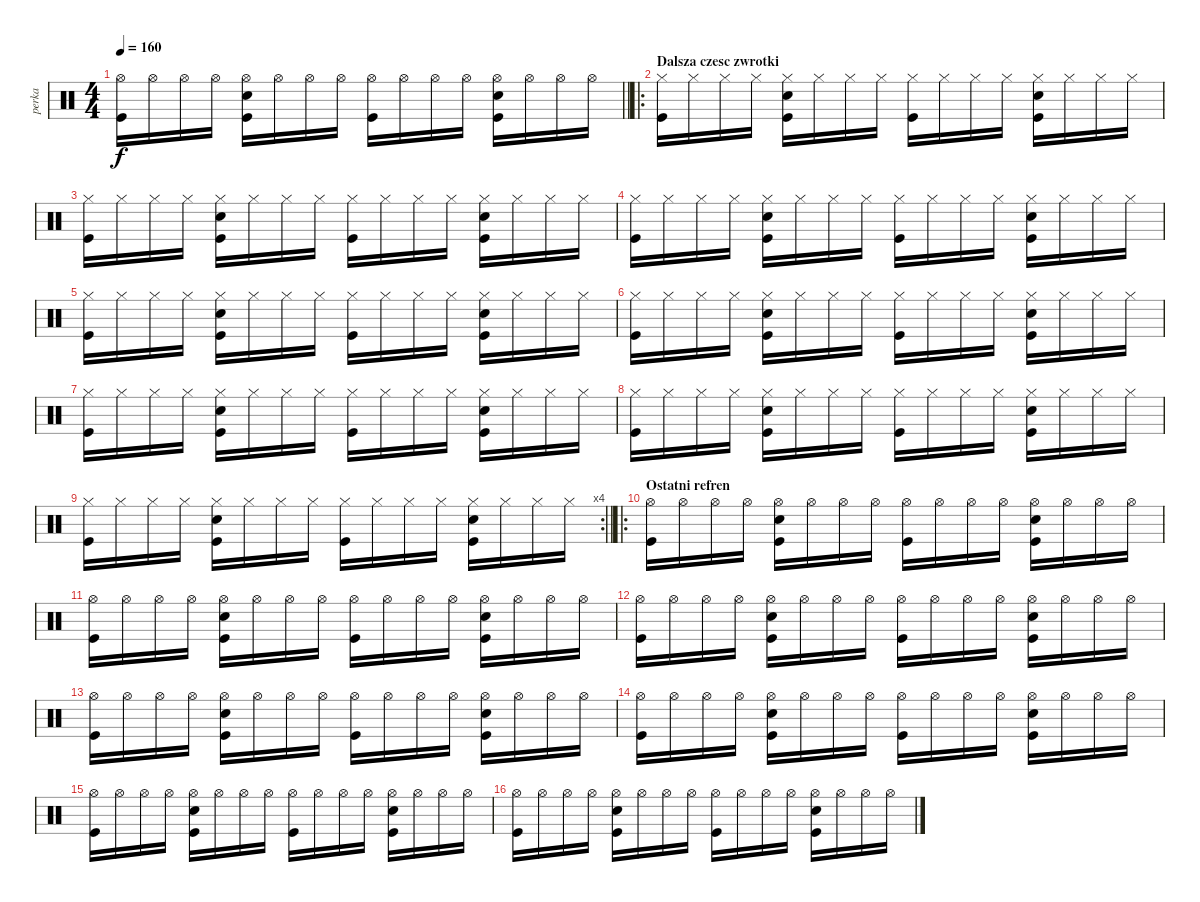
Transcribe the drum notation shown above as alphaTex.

\track ("perka" "perka") {instrument percussion}
\staff {score}
\articulation defaults
\ts (4 4)
\tempo 160
\clef neutral
\barLineRight lightlight
\ks c
("Hi-Hat (open)" "Kick (hit)").16{dy f} "Hi-Hat (open)".16 "Hi-Hat (open)".16 "Hi-Hat (open)".16 ("Hi-Hat (open)" "Snare (hit) 2" "Kick (hit)").16 "Hi-Hat (open)".16 "Hi-Hat (open)".16 "Hi-Hat (open)".16 ("Hi-Hat (open)" "Kick (hit)").16 "Hi-Hat (open)".16 "Hi-Hat (open)".16 "Hi-Hat (open)".16 ("Hi-Hat (open)" "Snare (hit) 2" "Kick (hit)").16 "Hi-Hat (open)".16 "Hi-Hat (open)".16 "Hi-Hat (open)".16 |
\ro
\section ("" "Dalsza czesc zwrotki")
("Hi-Hat (closed)" "Kick (hit)").16 "Hi-Hat (closed)".16 "Hi-Hat (closed)".16 "Hi-Hat (closed)".16 ("Hi-Hat (closed)" "Snare (hit) 2" "Kick (hit)").16 "Hi-Hat (closed)".16 "Hi-Hat (closed)".16 "Hi-Hat (closed)".16 ("Hi-Hat (closed)" "Kick (hit)").16 "Hi-Hat (closed)".16 "Hi-Hat (closed)".16 "Hi-Hat (closed)".16 ("Hi-Hat (closed)" "Snare (hit) 2" "Kick (hit)").16 "Hi-Hat (closed)".16 "Hi-Hat (closed)".16 "Hi-Hat (closed)".16 |
("Hi-Hat (closed)" "Kick (hit)").16 "Hi-Hat (closed)".16 "Hi-Hat (closed)".16 "Hi-Hat (closed)".16 ("Hi-Hat (closed)" "Snare (hit) 2" "Kick (hit)").16 "Hi-Hat (closed)".16 "Hi-Hat (closed)".16 "Hi-Hat (closed)".16 ("Hi-Hat (closed)" "Kick (hit)").16 "Hi-Hat (closed)".16 "Hi-Hat (closed)".16 "Hi-Hat (closed)".16 ("Hi-Hat (closed)" "Snare (hit) 2" "Kick (hit)").16 "Hi-Hat (closed)".16 "Hi-Hat (closed)".16 "Hi-Hat (closed)".16 |
("Hi-Hat (closed)" "Kick (hit)").16 "Hi-Hat (closed)".16 "Hi-Hat (closed)".16 "Hi-Hat (closed)".16 ("Hi-Hat (closed)" "Snare (hit) 2" "Kick (hit)").16 "Hi-Hat (closed)".16 "Hi-Hat (closed)".16 "Hi-Hat (closed)".16 ("Hi-Hat (closed)" "Kick (hit)").16 "Hi-Hat (closed)".16 "Hi-Hat (closed)".16 "Hi-Hat (closed)".16 ("Hi-Hat (closed)" "Snare (hit) 2" "Kick (hit)").16 "Hi-Hat (closed)".16 "Hi-Hat (closed)".16 "Hi-Hat (closed)".16 |
("Hi-Hat (closed)" "Kick (hit)").16 "Hi-Hat (closed)".16 "Hi-Hat (closed)".16 "Hi-Hat (closed)".16 ("Hi-Hat (closed)" "Snare (hit) 2" "Kick (hit)").16 "Hi-Hat (closed)".16 "Hi-Hat (closed)".16 "Hi-Hat (closed)".16 ("Hi-Hat (closed)" "Kick (hit)").16 "Hi-Hat (closed)".16 "Hi-Hat (closed)".16 "Hi-Hat (closed)".16 ("Hi-Hat (closed)" "Snare (hit) 2" "Kick (hit)").16 "Hi-Hat (closed)".16 "Hi-Hat (closed)".16 "Hi-Hat (closed)".16 |
("Hi-Hat (closed)" "Kick (hit)").16 "Hi-Hat (closed)".16 "Hi-Hat (closed)".16 "Hi-Hat (closed)".16 ("Hi-Hat (closed)" "Snare (hit) 2" "Kick (hit)").16 "Hi-Hat (closed)".16 "Hi-Hat (closed)".16 "Hi-Hat (closed)".16 ("Hi-Hat (closed)" "Kick (hit)").16 "Hi-Hat (closed)".16 "Hi-Hat (closed)".16 "Hi-Hat (closed)".16 ("Hi-Hat (closed)" "Snare (hit) 2" "Kick (hit)").16 "Hi-Hat (closed)".16 "Hi-Hat (closed)".16 "Hi-Hat (closed)".16 |
("Hi-Hat (closed)" "Kick (hit)").16 "Hi-Hat (closed)".16 "Hi-Hat (closed)".16 "Hi-Hat (closed)".16 ("Hi-Hat (closed)" "Snare (hit) 2" "Kick (hit)").16 "Hi-Hat (closed)".16 "Hi-Hat (closed)".16 "Hi-Hat (closed)".16 ("Hi-Hat (closed)" "Kick (hit)").16 "Hi-Hat (closed)".16 "Hi-Hat (closed)".16 "Hi-Hat (closed)".16 ("Hi-Hat (closed)" "Snare (hit) 2" "Kick (hit)").16 "Hi-Hat (closed)".16 "Hi-Hat (closed)".16 "Hi-Hat (closed)".16 |
("Hi-Hat (closed)" "Kick (hit)").16 "Hi-Hat (closed)".16 "Hi-Hat (closed)".16 "Hi-Hat (closed)".16 ("Hi-Hat (closed)" "Snare (hit) 2" "Kick (hit)").16 "Hi-Hat (closed)".16 "Hi-Hat (closed)".16 "Hi-Hat (closed)".16 ("Hi-Hat (closed)" "Kick (hit)").16 "Hi-Hat (closed)".16 "Hi-Hat (closed)".16 "Hi-Hat (closed)".16 ("Hi-Hat (closed)" "Snare (hit) 2" "Kick (hit)").16 "Hi-Hat (closed)".16 "Hi-Hat (closed)".16 "Hi-Hat (closed)".16 |
\rc 4
\barLineRight lightlight
("Hi-Hat (closed)" "Kick (hit)").16 "Hi-Hat (closed)".16 "Hi-Hat (closed)".16 "Hi-Hat (closed)".16 ("Hi-Hat (closed)" "Snare (hit) 2" "Kick (hit)").16 "Hi-Hat (closed)".16 "Hi-Hat (closed)".16 "Hi-Hat (closed)".16 ("Hi-Hat (closed)" "Kick (hit)").16 "Hi-Hat (closed)".16 "Hi-Hat (closed)".16 "Hi-Hat (closed)".16 ("Hi-Hat (closed)" "Snare (hit) 2" "Kick (hit)").16 "Hi-Hat (closed)".16 "Hi-Hat (closed)".16 "Hi-Hat (closed)".16 |
\ro
\section ("" "Ostatni refren")
("Hi-Hat (open)" "Kick (hit)").16 "Hi-Hat (open)".16 "Hi-Hat (open)".16 "Hi-Hat (open)".16 ("Hi-Hat (open)" "Snare (hit) 2" "Kick (hit)").16 "Hi-Hat (open)".16 "Hi-Hat (open)".16 "Hi-Hat (open)".16 ("Hi-Hat (open)" "Kick (hit)").16 "Hi-Hat (open)".16 "Hi-Hat (open)".16 "Hi-Hat (open)".16 ("Hi-Hat (open)" "Snare (hit) 2" "Kick (hit)").16 "Hi-Hat (open)".16 "Hi-Hat (open)".16 "Hi-Hat (open)".16 |
("Hi-Hat (open)" "Kick (hit)").16 "Hi-Hat (open)".16 "Hi-Hat (open)".16 "Hi-Hat (open)".16 ("Hi-Hat (open)" "Snare (hit) 2" "Kick (hit)").16 "Hi-Hat (open)".16 "Hi-Hat (open)".16 "Hi-Hat (open)".16 ("Hi-Hat (open)" "Kick (hit)").16 "Hi-Hat (open)".16 "Hi-Hat (open)".16 "Hi-Hat (open)".16 ("Hi-Hat (open)" "Snare (hit) 2" "Kick (hit)").16 "Hi-Hat (open)".16 "Hi-Hat (open)".16 "Hi-Hat (open)".16 |
("Hi-Hat (open)" "Kick (hit)").16 "Hi-Hat (open)".16 "Hi-Hat (open)".16 "Hi-Hat (open)".16 ("Hi-Hat (open)" "Snare (hit) 2" "Kick (hit)").16 "Hi-Hat (open)".16 "Hi-Hat (open)".16 "Hi-Hat (open)".16 ("Hi-Hat (open)" "Kick (hit)").16 "Hi-Hat (open)".16 "Hi-Hat (open)".16 "Hi-Hat (open)".16 ("Hi-Hat (open)" "Snare (hit) 2" "Kick (hit)").16 "Hi-Hat (open)".16 "Hi-Hat (open)".16 "Hi-Hat (open)".16 |
("Hi-Hat (open)" "Kick (hit)").16 "Hi-Hat (open)".16 "Hi-Hat (open)".16 "Hi-Hat (open)".16 ("Hi-Hat (open)" "Snare (hit) 2" "Kick (hit)").16 "Hi-Hat (open)".16 "Hi-Hat (open)".16 "Hi-Hat (open)".16 ("Hi-Hat (open)" "Kick (hit)").16 "Hi-Hat (open)".16 "Hi-Hat (open)".16 "Hi-Hat (open)".16 ("Hi-Hat (open)" "Snare (hit) 2" "Kick (hit)").16 "Hi-Hat (open)".16 "Hi-Hat (open)".16 "Hi-Hat (open)".16 |
("Hi-Hat (open)" "Kick (hit)").16 "Hi-Hat (open)".16 "Hi-Hat (open)".16 "Hi-Hat (open)".16 ("Hi-Hat (open)" "Snare (hit) 2" "Kick (hit)").16 "Hi-Hat (open)".16 "Hi-Hat (open)".16 "Hi-Hat (open)".16 ("Hi-Hat (open)" "Kick (hit)").16 "Hi-Hat (open)".16 "Hi-Hat (open)".16 "Hi-Hat (open)".16 ("Hi-Hat (open)" "Snare (hit) 2" "Kick (hit)").16 "Hi-Hat (open)".16 "Hi-Hat (open)".16 "Hi-Hat (open)".16 |
("Hi-Hat (open)" "Kick (hit)").16 "Hi-Hat (open)".16 "Hi-Hat (open)".16 "Hi-Hat (open)".16 ("Hi-Hat (open)" "Snare (hit) 2" "Kick (hit)").16 "Hi-Hat (open)".16 "Hi-Hat (open)".16 "Hi-Hat (open)".16 ("Hi-Hat (open)" "Kick (hit)").16 "Hi-Hat (open)".16 "Hi-Hat (open)".16 "Hi-Hat (open)".16 ("Hi-Hat (open)" "Snare (hit) 2" "Kick (hit)").16 "Hi-Hat (open)".16 "Hi-Hat (open)".16 "Hi-Hat (open)".16 |
("Hi-Hat (open)" "Kick (hit)").16 "Hi-Hat (open)".16 "Hi-Hat (open)".16 "Hi-Hat (open)".16 ("Hi-Hat (open)" "Snare (hit) 2" "Kick (hit)").16 "Hi-Hat (open)".16 "Hi-Hat (open)".16 "Hi-Hat (open)".16 ("Hi-Hat (open)" "Kick (hit)").16 "Hi-Hat (open)".16 "Hi-Hat (open)".16 "Hi-Hat (open)".16 ("Hi-Hat (open)" "Snare (hit) 2" "Kick (hit)").16 "Hi-Hat (open)".16 "Hi-Hat (open)".16 "Hi-Hat (open)".16
